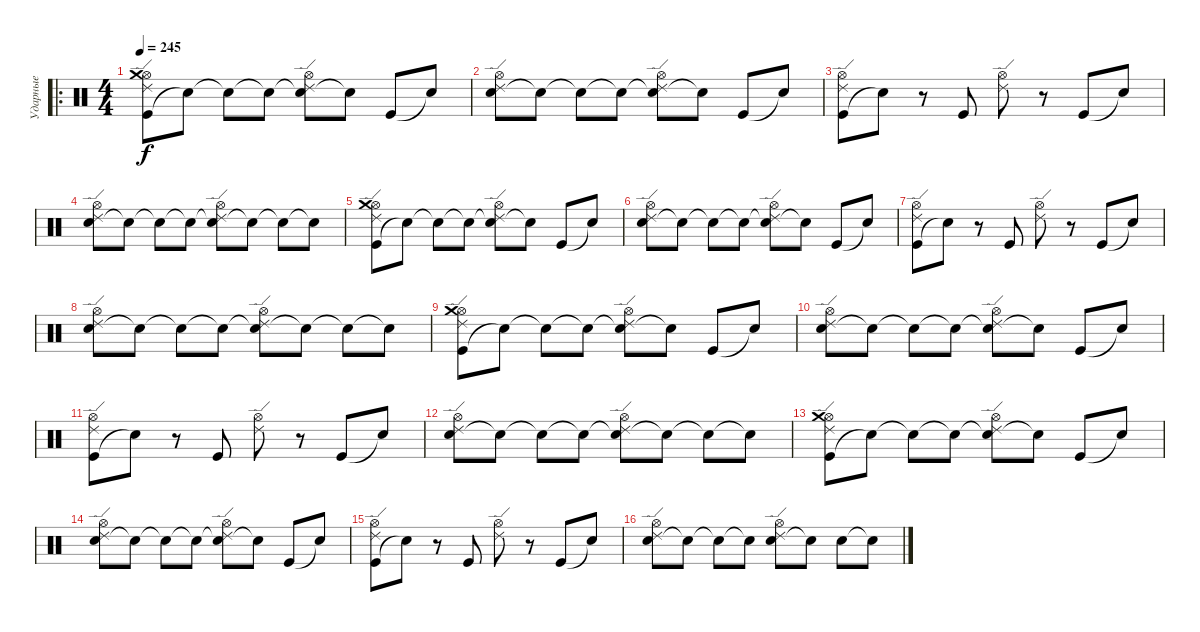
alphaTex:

\track ("Ударные" "Ударные") {instrument percussion}
\staff {score}
\articulation defaults
\ro
\ts (4 4)
\tempo 245
\clef neutral
\ks c
("Kick (hit)" "Ride (edge) 2" "Hi-Hat (open)" "Crash medium (hit)").8{dy f} "Snare (hit)"{t}.8 "Snare (hit)"{t}.8 "Snare (hit)"{t}.8 ("Snare (hit)"{t} "Ride (edge) 2" "Hi-Hat (open)").8 "Snare (hit)"{t}.8 "Kick (hit)".8 "Snare (hit)"{t}.8 |
("Electric Snare (hit)" "Ride (edge) 2" "Hi-Hat (open)").8 "Snare (hit)"{t}.8 "Snare (hit)"{t}.8 "Snare (hit)"{t}.8 ("Snare (hit)"{t} "Ride (edge) 2" "Hi-Hat (open)").8 "Snare (hit)"{t}.8 "Kick (hit)".8 "Snare (hit)"{t}.8 |
("Kick (hit)" "Ride (edge) 2" "Hi-Hat (open)").8 "Snare (hit)"{t}.8 r.8 "Kick (hit)".8 ("Ride (edge) 2" "Hi-Hat (open)").8 r.8 "Kick (hit)".8 "Snare (hit)"{t}.8 |
("Electric Snare (hit)" "Ride (edge) 2" "Hi-Hat (open)").8 "Snare (hit)"{t}.8 "Snare (hit)"{t}.8 "Snare (hit)"{t}.8 ("Snare (hit)"{t} "Ride (edge) 2" "Hi-Hat (open)").8 "Snare (hit)"{t}.8 "Snare (hit)"{t}.8 "Snare (hit)"{t}.8 |
("Kick (hit)" "Ride (edge) 2" "Hi-Hat (open)" "Crash medium (hit)").8 "Snare (hit)"{t}.8 "Snare (hit)"{t}.8 "Snare (hit)"{t}.8 ("Snare (hit)"{t} "Ride (edge) 2" "Hi-Hat (open)").8 "Snare (hit)"{t}.8 "Kick (hit)".8 "Snare (hit)"{t}.8 |
("Electric Snare (hit)" "Ride (edge) 2" "Hi-Hat (open)").8 "Snare (hit)"{t}.8 "Snare (hit)"{t}.8 "Snare (hit)"{t}.8 ("Snare (hit)"{t} "Ride (edge) 2" "Hi-Hat (open)").8 "Snare (hit)"{t}.8 "Kick (hit)".8 "Snare (hit)"{t}.8 |
("Kick (hit)" "Ride (edge) 2" "Hi-Hat (open)").8 "Snare (hit)"{t}.8 r.8 "Kick (hit)".8 ("Ride (edge) 2" "Hi-Hat (open)").8 r.8 "Kick (hit)".8 "Snare (hit)"{t}.8 |
("Electric Snare (hit)" "Ride (edge) 2" "Hi-Hat (open)").8 "Snare (hit)"{t}.8 "Snare (hit)"{t}.8 "Snare (hit)"{t}.8 ("Snare (hit)"{t} "Ride (edge) 2" "Hi-Hat (open)").8 "Snare (hit)"{t}.8 "Snare (hit)"{t}.8 "Snare (hit)"{t}.8 |
("Kick (hit)" "Ride (edge) 2" "Hi-Hat (open)" "Crash medium (hit)").8 "Snare (hit)"{t}.8 "Snare (hit)"{t}.8 "Snare (hit)"{t}.8 ("Snare (hit)"{t} "Ride (edge) 2" "Hi-Hat (open)").8 "Snare (hit)"{t}.8 "Kick (hit)".8 "Snare (hit)"{t}.8 |
("Electric Snare (hit)" "Ride (edge) 2" "Hi-Hat (open)").8 "Snare (hit)"{t}.8 "Snare (hit)"{t}.8 "Snare (hit)"{t}.8 ("Snare (hit)"{t} "Ride (edge) 2" "Hi-Hat (open)").8 "Snare (hit)"{t}.8 "Kick (hit)".8 "Snare (hit)"{t}.8 |
("Kick (hit)" "Ride (edge) 2" "Hi-Hat (open)").8 "Snare (hit)"{t}.8 r.8 "Kick (hit)".8 ("Ride (edge) 2" "Hi-Hat (open)").8 r.8 "Kick (hit)".8 "Snare (hit)"{t}.8 |
("Electric Snare (hit)" "Ride (edge) 2" "Hi-Hat (open)").8 "Snare (hit)"{t}.8 "Snare (hit)"{t}.8 "Snare (hit)"{t}.8 ("Snare (hit)"{t} "Ride (edge) 2" "Hi-Hat (open)").8 "Snare (hit)"{t}.8 "Snare (hit)"{t}.8 "Snare (hit)"{t}.8 |
("Kick (hit)" "Ride (edge) 2" "Hi-Hat (open)" "Crash medium (hit)").8 "Snare (hit)"{t}.8 "Snare (hit)"{t}.8 "Snare (hit)"{t}.8 ("Snare (hit)"{t} "Ride (edge) 2" "Hi-Hat (open)").8 "Snare (hit)"{t}.8 "Kick (hit)".8 "Snare (hit)"{t}.8 |
("Electric Snare (hit)" "Ride (edge) 2" "Hi-Hat (open)").8 "Snare (hit)"{t}.8 "Snare (hit)"{t}.8 "Snare (hit)"{t}.8 ("Snare (hit)"{t} "Ride (edge) 2" "Hi-Hat (open)").8 "Snare (hit)"{t}.8 "Kick (hit)".8 "Snare (hit)"{t}.8 |
("Kick (hit)" "Ride (edge) 2" "Hi-Hat (open)").8 "Snare (hit)"{t}.8 r.8 "Kick (hit)".8 ("Ride (edge) 2" "Hi-Hat (open)").8 r.8 "Kick (hit)".8 "Snare (hit)"{t}.8 |
("Electric Snare (hit)" "Ride (edge) 2" "Hi-Hat (open)").8 "Snare (hit)"{t}.8 "Snare (hit)"{t}.8 "Snare (hit)"{t}.8 ("Electric Snare (hit)" "Ride (edge) 2" "Hi-Hat (open)").8 "Snare (hit)"{t}.8 "Electric Snare (hit)".8 "Snare (hit)"{t}.8
